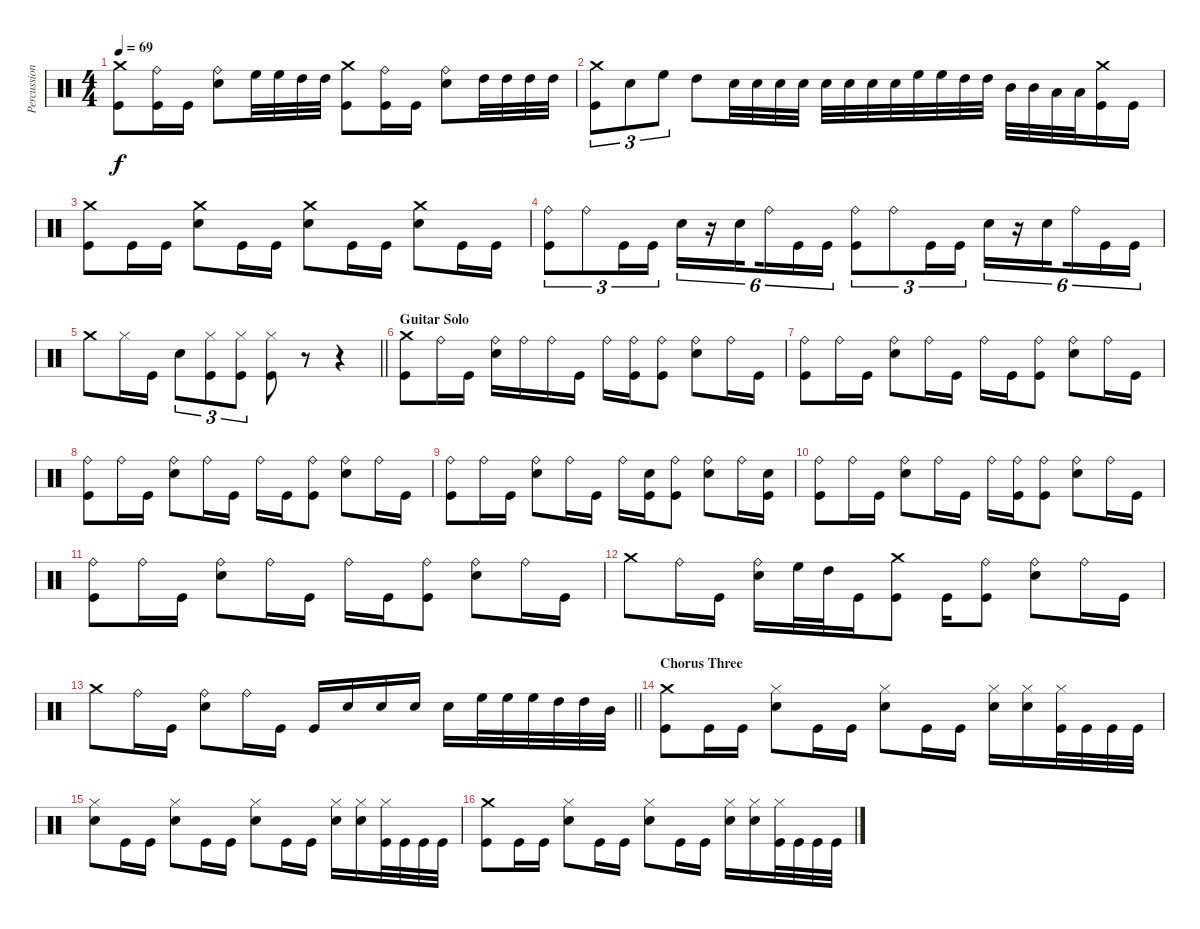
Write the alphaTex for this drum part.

\track ("Percussion" "Percussion") {instrument percussion}
\staff {score}
\articulation defaults
\ts (4 4)
\tempo 69
\clef neutral
\ks c
("Crash medium (hit)" "Kick (hit)").8{dy f} ("Ride (bell)" "Kick (hit)").16 "Kick (hit)".16 ("Ride (bell)" "Electric Snare (hit)").8 "High Floor Tom (hit)".32 "High Floor Tom (hit)".32 "High Tom (hit)".32 "High Tom (hit)".32 ("Crash medium (hit)" "Kick (hit)").8 ("Ride (bell)" "Kick (hit)").16 "Kick (hit)".16 ("Ride (bell)" "Electric Snare (hit)").8 "High Tom (hit)".32 "High Tom (hit)".32 "High Tom (hit)".32 "High Tom (hit)".32 |
("Crash medium (hit)" "Kick (hit)").8{tu (3 2)} "Electric Snare (hit)".8{tu (3 2)} "High Floor Tom (hit)".8{tu (3 2)} "High Tom (hit)".8 "Electric Snare (hit)".32 "Electric Snare (hit)".32 "Electric Snare (hit)".32 "Electric Snare (hit)".32 "Electric Snare (hit)".32 "Electric Snare (hit)".32 "Electric Snare (hit)".32 "Electric Snare (hit)".32 "High Floor Tom (hit)".32 "High Floor Tom (hit)".32 "High Tom (hit)".32 "High Tom (hit)".32 "Mid Tom (hit)".32 "Mid Tom (hit)".32 "Low Tom (hit)".32 "Low Tom (hit)".32 ("Crash medium (hit)" "Kick (hit)").16 "Kick (hit)".16 |
("Crash medium (hit)" "Kick (hit)").8 "Kick (hit)".16 "Kick (hit)".16 ("Crash medium (hit)" "Electric Snare (hit)").8 "Kick (hit)".16 "Kick (hit)".16 ("Crash medium (hit)" "Electric Snare (hit)").8 "Kick (hit)".16 "Kick (hit)".16 ("Crash medium (hit)" "Electric Snare (hit)").8 "Kick (hit)".16 "Kick (hit)".16 |
("Ride (bell)" "Kick (hit)").8{tu (3 2)} "Ride (bell)".8{tu (3 2)} "Kick (hit)".16{tu (3 2)} "Kick (hit)".16{tu (3 2)} "Electric Snare (hit)".16{tu (6 4)} r.16{tu (6 4)} "Electric Snare (hit)".16{tu (6 4) beam splitsecondary} "Ride (bell)".16{tu (6 4)} "Kick (hit)".16{tu (6 4)} "Kick (hit)".16{tu (6 4)} ("Ride (bell)" "Kick (hit)").8{tu (3 2)} "Ride (bell)".8{tu (3 2)} "Kick (hit)".16{tu (3 2)} "Kick (hit)".16{tu (3 2)} "Electric Snare (hit)".16{tu (6 4)} r.16{tu (6 4)} "Electric Snare (hit)".16{tu (6 4) beam splitsecondary} "Ride (bell)".16{tu (6 4)} "Kick (hit)".16{tu (6 4)} "Kick (hit)".16{tu (6 4)} |
\barLineRight lightlight "Crash medium (hit)".8 "Hi-Hat (closed)".16 "Kick (hit)".16 "Electric Snare (hit)".8{tu (3 2)}
("Hi-Hat (closed)" "Kick (hit)").8{tu (3 2)} ("Hi-Hat (closed)" "Kick (hit)").8{tu (3 2)} ("Hi-Hat (closed)" "Kick (hit)").8 r.8 r.4 |
\section ("" "Guitar Solo")
("Crash medium (hit)" "Kick (hit)").8 "Ride (bell)".16 "Kick (hit)".16 ("Ride (bell)" "Electric Snare (hit)").16 "Ride (bell)".16 "Ride (bell)".16 "Kick (hit)".16 "Ride (bell)".16 ("Ride (bell)" "Kick (hit)").16 ("Ride (bell)" "Kick (hit)").8 ("Ride (bell)" "Electric Snare (hit)").8 "Ride (bell)".16 "Kick (hit)".16 |
("Ride (bell)" "Kick (hit)").8 "Ride (bell)".16 "Kick (hit)".16 ("Ride (bell)" "Electric Snare (hit)").8 "Ride (bell)".16 "Kick (hit)".16 "Ride (bell)".16 "Kick (hit)".16 ("Ride (bell)" "Kick (hit)").8 ("Ride (bell)" "Electric Snare (hit)").8 "Ride (bell)".16 "Kick (hit)".16 |
("Ride (bell)" "Kick (hit)").8 "Ride (bell)".16 "Kick (hit)".16 ("Ride (bell)" "Electric Snare (hit)").8 "Ride (bell)".16 "Kick (hit)".16 "Ride (bell)".16 "Kick (hit)".16 ("Ride (bell)" "Kick (hit)").8 ("Ride (bell)" "Electric Snare (hit)").8 "Ride (bell)".16 "Kick (hit)".16 |
("Ride (bell)" "Kick (hit)").8 "Ride (bell)".16 "Kick (hit)".16 ("Ride (bell)" "Electric Snare (hit)").8 "Ride (bell)".16 "Kick (hit)".16 "Ride (bell)".16 ("Electric Snare (hit)" "Kick (hit)").16 ("Ride (bell)" "Kick (hit)").8 ("Ride (bell)" "Electric Snare (hit)").8 "Ride (bell)".16 ("Electric Snare (hit)" "Kick (hit)").16 |
("Ride (bell)" "Kick (hit)").8 "Ride (bell)".16 "Kick (hit)".16 ("Ride (bell)" "Electric Snare (hit)").8 "Ride (bell)".16 "Kick (hit)".16 "Ride (bell)".16 ("Ride (bell)" "Kick (hit)").16 ("Ride (bell)" "Kick (hit)").8 ("Ride (bell)" "Electric Snare (hit)").8 "Ride (bell)".16 "Kick (hit)".16 |
("Ride (bell)" "Kick (hit)").8 "Ride (bell)".16 "Kick (hit)".16 ("Ride (bell)" "Electric Snare (hit)").8 "Ride (bell)".16 "Kick (hit)".16 "Ride (bell)".16 "Kick (hit)".16 ("Ride (bell)" "Kick (hit)").8 ("Ride (bell)" "Electric Snare (hit)").8 "Ride (bell)".16 "Kick (hit)".16 |
"Crash medium (hit)".8 "Ride (bell)".16 "Kick (hit)".16 ("Ride (bell)" "Electric Snare (hit)").16 "High Floor Tom (hit)".32 "High Tom (hit)".32 "Kick (hit)".16 ("Crash medium (hit)" "Kick (hit)").8 "Kick (hit)".16 ("Ride (bell)" "Kick (hit)").8 ("Ride (bell)" "Electric Snare (hit)").8 "Ride (bell)".16 "Kick (hit)".16 |
\barLineRight lightlight "Crash medium (hit)".8 "Ride (bell)".16 "Kick (hit)".16
("Ride (bell)" "Electric Snare (hit)").8 "Ride (bell)".16 "Kick (hit)".16 "Kick (hit)".16 "Electric Snare (hit)".16 "Electric Snare (hit)".16 "Electric Snare (hit)".16 "Electric Snare (hit)".16 "High Floor Tom (hit)".32 "High Floor Tom (hit)".32 "High Floor Tom (hit)".32 "High Tom (hit)".32 "High Tom (hit)".32 "Mid Tom (hit)".32 |
\section ("" "Chorus Three")
("Crash medium (hit)" "Kick (hit)").8 "Kick (hit)".16 "Kick (hit)".16 ("Hi-Hat (closed)" "Electric Snare (hit)").8 "Kick (hit)".16 "Kick (hit)".16 ("Hi-Hat (closed)" "Electric Snare (hit)").8 "Kick (hit)".16 "Kick (hit)".16 ("Hi-Hat (closed)" "Electric Snare (hit)").16 ("Hi-Hat (closed)" "Electric Snare (hit)").16 ("Hi-Hat (closed)" "Kick (hit)").32 "Kick (hit)".32 "Kick (hit)".32 "Kick (hit)".32 |
("Hi-Hat (closed)" "Electric Snare (hit)").8 "Kick (hit)".16 "Kick (hit)".16 ("Hi-Hat (closed)" "Electric Snare (hit)").8 "Kick (hit)".16 "Kick (hit)".16 ("Hi-Hat (closed)" "Electric Snare (hit)").8 "Kick (hit)".16 "Kick (hit)".16 ("Hi-Hat (closed)" "Electric Snare (hit)").16 ("Hi-Hat (closed)" "Electric Snare (hit)").16 ("Hi-Hat (closed)" "Kick (hit)").32 "Kick (hit)".32 "Kick (hit)".32 "Kick (hit)".32 |
("Crash medium (hit)" "Kick (hit)").8 "Kick (hit)".16 "Kick (hit)".16 ("Hi-Hat (closed)" "Electric Snare (hit)").8 "Kick (hit)".16 "Kick (hit)".16 ("Hi-Hat (closed)" "Electric Snare (hit)").8 "Kick (hit)".16 "Kick (hit)".16 ("Hi-Hat (closed)" "Electric Snare (hit)").16 ("Hi-Hat (closed)" "Electric Snare (hit)").16 ("Hi-Hat (closed)" "Kick (hit)").32 "Kick (hit)".32 "Kick (hit)".32 "Kick (hit)".32
